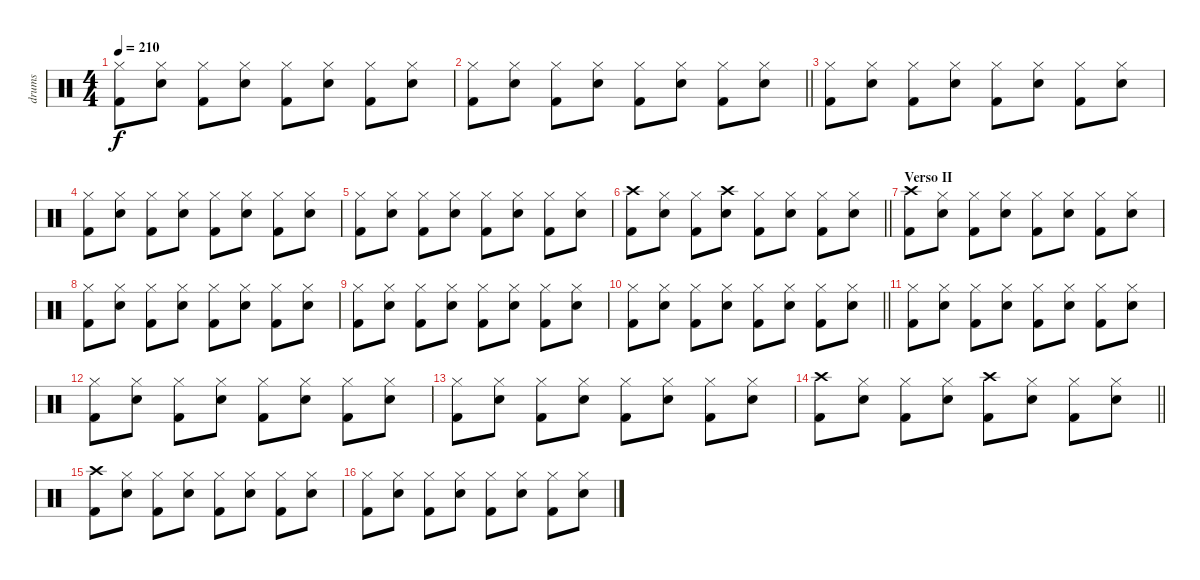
\track ("drums" "drums") {instrument percussion}
\staff {score}
\articulation defaults
\ts (4 4)
\tempo 210
\clef neutral
\ks c
("Hi-Hat (closed)" "Kick (hit) 2").8{dy f} ("Hi-Hat (closed)" "Electric Snare (hit)").8 ("Hi-Hat (closed)" "Kick (hit) 2").8 ("Hi-Hat (closed)" "Electric Snare (hit)").8 ("Hi-Hat (closed)" "Kick (hit) 2").8 ("Hi-Hat (closed)" "Electric Snare (hit)").8 ("Hi-Hat (closed)" "Kick (hit) 2").8 ("Hi-Hat (closed)" "Electric Snare (hit)").8 |
\barLineRight lightlight
("Hi-Hat (closed)" "Kick (hit) 2").8 ("Hi-Hat (closed)" "Electric Snare (hit)").8 ("Hi-Hat (closed)" "Kick (hit) 2").8 ("Hi-Hat (closed)" "Electric Snare (hit)").8 ("Hi-Hat (closed)" "Kick (hit) 2").8 ("Hi-Hat (closed)" "Electric Snare (hit)").8 ("Hi-Hat (closed)" "Kick (hit) 2").8 ("Hi-Hat (closed)" "Electric Snare (hit)").8 |
("Hi-Hat (closed)" "Kick (hit) 2").8 ("Hi-Hat (closed)" "Electric Snare (hit)").8 ("Hi-Hat (closed)" "Kick (hit) 2").8 ("Hi-Hat (closed)" "Electric Snare (hit)").8 ("Hi-Hat (closed)" "Kick (hit) 2").8 ("Hi-Hat (closed)" "Electric Snare (hit)").8 ("Hi-Hat (closed)" "Kick (hit) 2").8 ("Hi-Hat (closed)" "Electric Snare (hit)").8 |
("Hi-Hat (closed)" "Kick (hit) 2").8 ("Hi-Hat (closed)" "Electric Snare (hit)").8 ("Hi-Hat (closed)" "Kick (hit) 2").8 ("Hi-Hat (closed)" "Electric Snare (hit)").8 ("Hi-Hat (closed)" "Kick (hit) 2").8 ("Hi-Hat (closed)" "Electric Snare (hit)").8 ("Hi-Hat (closed)" "Kick (hit) 2").8 ("Hi-Hat (closed)" "Electric Snare (hit)").8 |
("Hi-Hat (closed)" "Kick (hit) 2").8 ("Hi-Hat (closed)" "Electric Snare (hit)").8 ("Hi-Hat (closed)" "Kick (hit) 2").8 ("Hi-Hat (closed)" "Electric Snare (hit)").8 ("Hi-Hat (closed)" "Kick (hit) 2").8 ("Hi-Hat (closed)" "Electric Snare (hit)").8 ("Hi-Hat (closed)" "Kick (hit) 2").8 ("Hi-Hat (closed)" "Electric Snare (hit)").8 |
\barLineRight lightlight
("Crash high (hit)" "Kick (hit) 2").8 ("Hi-Hat (closed)" "Electric Snare (hit)").8 ("Hi-Hat (closed)" "Kick (hit) 2").8 ("Crash high (hit)" "Electric Snare (hit)").8 ("Hi-Hat (closed)" "Kick (hit) 2").8 ("Hi-Hat (closed)" "Electric Snare (hit)").8 ("Hi-Hat (closed)" "Kick (hit) 2").8 ("Hi-Hat (closed)" "Electric Snare (hit)").8 |
\section ("" "Verso II")
("Crash high (hit)" "Kick (hit) 2").8 ("Hi-Hat (closed)" "Electric Snare (hit)").8 ("Hi-Hat (closed)" "Kick (hit) 2").8 ("Hi-Hat (closed)" "Electric Snare (hit)").8 ("Hi-Hat (closed)" "Kick (hit) 2").8 ("Hi-Hat (closed)" "Electric Snare (hit)").8 ("Hi-Hat (closed)" "Kick (hit) 2").8 ("Hi-Hat (closed)" "Electric Snare (hit)").8 |
("Hi-Hat (closed)" "Kick (hit) 2").8 ("Hi-Hat (closed)" "Electric Snare (hit)").8 ("Hi-Hat (closed)" "Kick (hit) 2").8 ("Hi-Hat (closed)" "Electric Snare (hit)").8 ("Hi-Hat (closed)" "Kick (hit) 2").8 ("Hi-Hat (closed)" "Electric Snare (hit)").8 ("Hi-Hat (closed)" "Kick (hit) 2").8 ("Hi-Hat (closed)" "Electric Snare (hit)").8 |
("Hi-Hat (closed)" "Kick (hit) 2").8 ("Hi-Hat (closed)" "Electric Snare (hit)").8 ("Hi-Hat (closed)" "Kick (hit) 2").8 ("Hi-Hat (closed)" "Electric Snare (hit)").8 ("Hi-Hat (closed)" "Kick (hit) 2").8 ("Hi-Hat (closed)" "Electric Snare (hit)").8 ("Hi-Hat (closed)" "Kick (hit) 2").8 ("Hi-Hat (closed)" "Electric Snare (hit)").8 |
\barLineRight lightlight
("Hi-Hat (closed)" "Kick (hit) 2").8 ("Hi-Hat (closed)" "Electric Snare (hit)").8 ("Hi-Hat (closed)" "Kick (hit) 2").8 ("Hi-Hat (closed)" "Electric Snare (hit)").8 ("Hi-Hat (closed)" "Kick (hit) 2").8 ("Hi-Hat (closed)" "Electric Snare (hit)").8 ("Hi-Hat (closed)" "Kick (hit) 2").8 ("Hi-Hat (closed)" "Electric Snare (hit)").8 |
("Hi-Hat (closed)" "Kick (hit) 2").8 ("Hi-Hat (closed)" "Electric Snare (hit)").8 ("Hi-Hat (closed)" "Kick (hit) 2").8 ("Hi-Hat (closed)" "Electric Snare (hit)").8 ("Hi-Hat (closed)" "Kick (hit) 2").8 ("Hi-Hat (closed)" "Electric Snare (hit)").8 ("Hi-Hat (closed)" "Kick (hit) 2").8 ("Hi-Hat (closed)" "Electric Snare (hit)").8 |
("Hi-Hat (closed)" "Kick (hit) 2").8 ("Hi-Hat (closed)" "Electric Snare (hit)").8 ("Hi-Hat (closed)" "Kick (hit) 2").8 ("Hi-Hat (closed)" "Electric Snare (hit)").8 ("Hi-Hat (closed)" "Kick (hit) 2").8 ("Hi-Hat (closed)" "Electric Snare (hit)").8 ("Hi-Hat (closed)" "Kick (hit) 2").8 ("Hi-Hat (closed)" "Electric Snare (hit)").8 |
("Hi-Hat (closed)" "Kick (hit) 2").8 ("Hi-Hat (closed)" "Electric Snare (hit)").8 ("Hi-Hat (closed)" "Kick (hit) 2").8 ("Hi-Hat (closed)" "Electric Snare (hit)").8 ("Hi-Hat (closed)" "Kick (hit) 2").8 ("Hi-Hat (closed)" "Electric Snare (hit)").8 ("Hi-Hat (closed)" "Kick (hit) 2").8 ("Hi-Hat (closed)" "Electric Snare (hit)").8 |
\barLineRight lightlight
("Crash high (hit)" "Kick (hit) 2").8 ("Hi-Hat (closed)" "Electric Snare (hit)").8 ("Hi-Hat (closed)" "Kick (hit) 2").8 ("Hi-Hat (closed)" "Electric Snare (hit)").8 ("Crash high (hit)" "Kick (hit) 2").8 ("Hi-Hat (closed)" "Electric Snare (hit)").8 ("Hi-Hat (closed)" "Kick (hit) 2").8 ("Hi-Hat (closed)" "Electric Snare (hit)").8 |
("Crash high (hit)" "Kick (hit) 2").8 ("Hi-Hat (closed)" "Electric Snare (hit)").8 ("Hi-Hat (closed)" "Kick (hit) 2").8 ("Hi-Hat (closed)" "Electric Snare (hit)").8 ("Hi-Hat (closed)" "Kick (hit) 2").8 ("Hi-Hat (closed)" "Electric Snare (hit)").8 ("Hi-Hat (closed)" "Kick (hit) 2").8 ("Hi-Hat (closed)" "Electric Snare (hit)").8 |
("Hi-Hat (closed)" "Kick (hit) 2").8 ("Hi-Hat (closed)" "Electric Snare (hit)").8 ("Hi-Hat (closed)" "Kick (hit) 2").8 ("Hi-Hat (closed)" "Electric Snare (hit)").8 ("Hi-Hat (closed)" "Kick (hit) 2").8 ("Hi-Hat (closed)" "Electric Snare (hit)").8 ("Hi-Hat (closed)" "Kick (hit) 2").8 ("Hi-Hat (closed)" "Electric Snare (hit)").8
